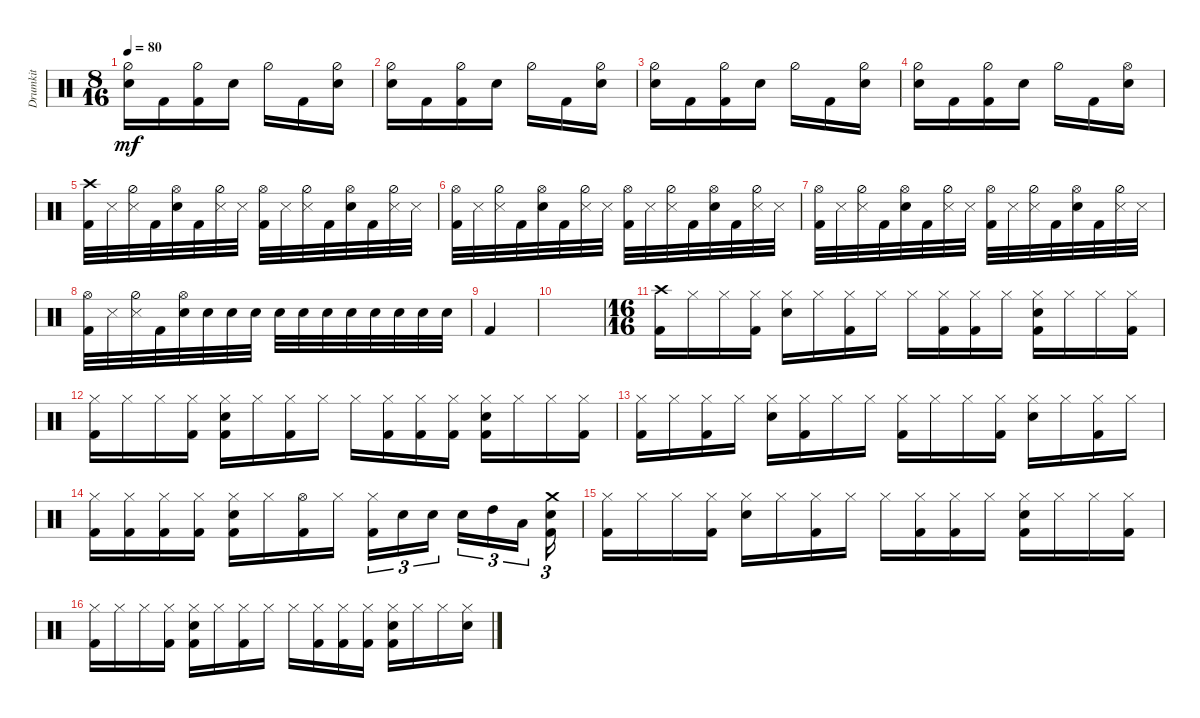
\track ("Drumkit" "Drumkit") {instrument percussion}
\staff {score}
\articulation defaults
\ts (8 16)
\tempo 80
\clef neutral
\ks c
("Hi-Hat (half)" "Snare (hit) 2").16{dy mf} "Kick (hit) 2".16 ("Kick (hit) 2" "Hi-Hat (half)").16 "Snare (hit) 2".16 "Hi-Hat (half)".16 "Kick (hit) 2".16 ("Hi-Hat (half)" "Snare (hit) 2").16 |
("Hi-Hat (half)" "Snare (hit) 2").16 "Kick (hit) 2".16 ("Kick (hit) 2" "Hi-Hat (half)").16 "Snare (hit) 2".16 "Hi-Hat (half)".16 "Kick (hit) 2".16 ("Hi-Hat (half)" "Snare (hit) 2").16 |
("Hi-Hat (half)" "Snare (hit) 2").16 "Kick (hit) 2".16 ("Kick (hit) 2" "Hi-Hat (half)").16 "Snare (hit) 2".16 "Hi-Hat (half)".16 "Kick (hit) 2".16 ("Snare (hit) 2" "Hi-Hat (half)").16 |
("Hi-Hat (half)" "Snare (hit) 2").16 "Kick (hit) 2".16 ("Kick (hit) 2" "Hi-Hat (half)").16 "Snare (hit) 2".16 "Hi-Hat (half)".16 "Kick (hit) 2".16 ("Snare (hit) 2" "Hi-Hat (open)").16 |
("Kick (hit) 2" "Crash high (hit)").32 "Snare (side stick) 3".32 ("Snare (side stick) 3" "Hi-Hat (half)").32 "Kick (hit) 2".32 ("Snare (hit) 2" "Hi-Hat (open)").32 "Kick (hit) 2".32 ("Snare (side stick) 3" "Hi-Hat (half)").32 "Snare (side stick) 3".32 ("Hi-Hat (open)" "Kick (hit) 2").32 "Snare (side stick) 3".32 ("Snare (side stick) 3" "Hi-Hat (half)").32 "Kick (hit) 2".32 ("Snare (hit) 2" "Hi-Hat (open)").32 "Kick (hit) 2".32 ("Hi-Hat (half)" "Snare (side stick) 3").32 "Snare (side stick) 3".32 |
("Kick (hit) 2" "Hi-Hat (open)").32 "Snare (side stick) 3".32 ("Snare (side stick) 3" "Hi-Hat (half)").32 "Kick (hit) 2".32 ("Snare (hit) 2" "Hi-Hat (open)").32 "Kick (hit) 2".32 ("Snare (side stick) 3" "Hi-Hat (half)").32 "Snare (side stick) 3".32 ("Hi-Hat (open)" "Kick (hit) 2").32 "Snare (side stick) 3".32 ("Snare (side stick) 3" "Hi-Hat (half)").32 "Kick (hit) 2".32 ("Snare (hit) 2" "Hi-Hat (open)").32 "Kick (hit) 2".32 ("Hi-Hat (half)" "Snare (side stick) 3").32 "Snare (side stick) 3".32 |
("Kick (hit) 2" "Hi-Hat (open)").32 "Snare (side stick) 3".32 ("Snare (side stick) 3" "Hi-Hat (half)").32 "Kick (hit) 2".32 ("Snare (hit) 2" "Hi-Hat (open)").32 "Kick (hit) 2".32 ("Snare (side stick) 3" "Hi-Hat (half)").32 "Snare (side stick) 3".32 ("Hi-Hat (open)" "Kick (hit) 2").32 "Snare (side stick) 3".32 ("Snare (side stick) 3" "Hi-Hat (half)").32 "Kick (hit) 2".32 ("Snare (hit) 2" "Hi-Hat (open)").32 "Kick (hit) 2".32 ("Hi-Hat (half)" "Snare (side stick) 3").32 "Snare (side stick) 3".32 |
("Hi-Hat (open)" "Kick (hit) 2").32 "Snare (side stick) 3".32 ("Snare (side stick) 3" "Hi-Hat (half)").32 "Kick (hit) 2".32 ("Snare (hit) 2" "Hi-Hat (open)").32 "Snare (hit) 2".32 "Snare (hit) 2".32 "Snare (hit) 2".32 "Snare (hit) 2".32 "Snare (hit) 2".32 "Snare (hit) 2".32 "Snare (hit) 2".32 "Snare (hit) 2".32 "Snare (hit) 2".32 "Snare (hit) 2".32 "Snare (hit) 2".32 |
"Kick (hit) 2".4 |
|
\ts (16 16)
("Crash high (hit)" "Kick (hit) 2").16 "Hi-Hat (closed)".16 "Hi-Hat (closed)".16 ("Hi-Hat (closed)" "Kick (hit) 2").16 ("Hi-Hat (closed)" "Snare (hit) 2").16 "Hi-Hat (closed)".16 ("Hi-Hat (closed)" "Kick (hit) 2").16 "Hi-Hat (closed)".16 "Hi-Hat (closed)".16 ("Hi-Hat (closed)" "Kick (hit) 2").16 ("Hi-Hat (closed)" "Kick (hit) 2").16 "Hi-Hat (closed)".16 ("Snare (hit) 2" "Kick (hit) 2" "Hi-Hat (closed)").16 "Hi-Hat (closed)".16 "Hi-Hat (closed)".16 ("Kick (hit) 2" "Hi-Hat (closed)").16 |
("Hi-Hat (closed)" "Kick (hit) 2").16 "Hi-Hat (closed)".16 "Hi-Hat (closed)".16 ("Hi-Hat (closed)" "Kick (hit) 2").16 ("Kick (hit) 2" "Hi-Hat (closed)" "Snare (hit) 2").16 "Hi-Hat (closed)".16 ("Hi-Hat (closed)" "Kick (hit) 2").16 "Hi-Hat (closed)".16 "Hi-Hat (closed)".16 ("Hi-Hat (closed)" "Kick (hit) 2").16 ("Kick (hit) 2" "Hi-Hat (closed)").16 ("Kick (hit) 2" "Hi-Hat (closed)").16 ("Kick (hit) 2" "Snare (hit) 2" "Hi-Hat (closed)").16 "Hi-Hat (closed)".16 "Hi-Hat (closed)".16 ("Hi-Hat (closed)" "Kick (hit) 2").16 |
("Kick (hit) 2" "Hi-Hat (closed)").16 "Hi-Hat (closed)".16 ("Hi-Hat (closed)" "Kick (hit) 2").16 "Hi-Hat (closed)".16 ("Hi-Hat (closed)" "Snare (hit) 2").16 ("Hi-Hat (closed)" "Kick (hit) 2").16 "Hi-Hat (closed)".16 "Hi-Hat (closed)".16 ("Hi-Hat (closed)" "Kick (hit) 2").16 "Hi-Hat (closed)".16 "Hi-Hat (closed)".16 ("Kick (hit) 2" "Hi-Hat (closed)").16 ("Hi-Hat (closed)" "Snare (hit) 2").16 "Hi-Hat (closed)".16 ("Hi-Hat (closed)" "Kick (hit) 2").16 "Hi-Hat (closed)".16 |
("Hi-Hat (closed)" "Kick (hit) 2").16 ("Hi-Hat (closed)" "Kick (hit) 2").16 ("Hi-Hat (closed)" "Kick (hit) 2").16 ("Hi-Hat (closed)" "Kick (hit) 2").16 ("Hi-Hat (closed)" "Kick (hit) 2" "Snare (hit) 2").16 "Hi-Hat (closed)".16 ("Hi-Hat (open)" "Kick (hit) 2").16 "Hi-Hat (closed)".16 ("Kick (hit) 2" "Hi-Hat (closed)").16{tu (3 2)} "Snare (hit) 2".16{tu (3 2)} "Snare (hit) 2".16{tu (3 2)} "Snare (hit) 2".16{tu (3 2)} "High Tom (hit)".16{tu (3 2)} "Low Tom (hit)".16{tu (3 2)} ("Kick (hit) 2" "Snare (hit) 2" "Crash medium (hit)").16{tu (3 2)} |
("Kick (hit) 2" "Hi-Hat (closed)").16 "Hi-Hat (closed)".16 "Hi-Hat (closed)".16 ("Hi-Hat (closed)" "Kick (hit) 2").16 ("Hi-Hat (closed)" "Snare (hit) 2").16 "Hi-Hat (closed)".16 ("Kick (hit) 2" "Hi-Hat (closed)").16 "Hi-Hat (closed)".16 "Hi-Hat (closed)".16 ("Hi-Hat (closed)" "Kick (hit) 2").16 ("Kick (hit) 2" "Hi-Hat (closed)").16 "Hi-Hat (closed)".16 ("Hi-Hat (closed)" "Snare (hit) 2" "Kick (hit) 2").16 "Hi-Hat (closed)".16 "Hi-Hat (closed)".16 ("Hi-Hat (closed)" "Kick (hit) 2").16 |
("Hi-Hat (closed)" "Kick (hit) 2").16 "Hi-Hat (closed)".16 "Hi-Hat (closed)".16 ("Hi-Hat (closed)" "Kick (hit) 2").16 ("Hi-Hat (closed)" "Snare (hit) 2" "Kick (hit) 2").16 "Hi-Hat (closed)".16 ("Kick (hit) 2" "Hi-Hat (closed)").16 "Hi-Hat (closed)".16 "Hi-Hat (closed)".16 ("Hi-Hat (closed)" "Kick (hit) 2").16 ("Hi-Hat (closed)" "Kick (hit) 2").16 ("Hi-Hat (closed)" "Kick (hit) 2").16 ("Hi-Hat (closed)" "Snare (hit) 2" "Kick (hit) 2").16 "Hi-Hat (closed)".16 "Hi-Hat (closed)".16 ("Hi-Hat (closed)" "Snare (hit) 2").16
